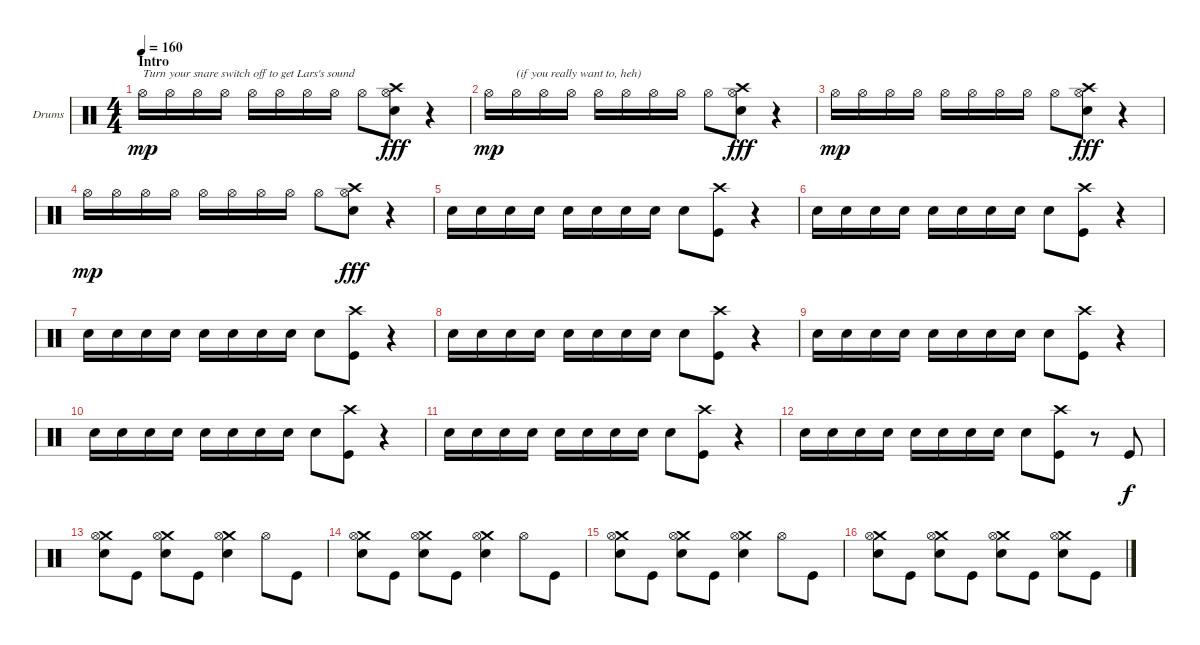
\bracketExtendMode groupsimilarinstruments
\firstSystemTrackNameOrientation horizontal
\otherSystemsTrackNameOrientation horizontal
\track ("Lars Ulrich (Drum)" "Drums") {instrument percussion}
\staff {score}
\articulation defaults
\ts (4 4)
\section ("" "Intro")
\tempo 160
\clef neutral
\ks c "Hi-Hat (open)".16{txt "Turn your snare switch off to get Lars's sound" dy mp} "Hi-Hat (open)".16 "Hi-Hat (open)".16 "Hi-Hat (open)".16 "Hi-Hat (open)".16 "Hi-Hat (open)".16 "Hi-Hat (open)".16 "Hi-Hat (open)".16 "Hi-Hat (open)".8
("Crash high (hit)" "Hi-Hat (open)" "Snare (hit) 2").8{dy fff} r.4 |
"Hi-Hat (open)".16{dy mp} "Hi-Hat (open)".16{txt "(if you really want to, heh)"} "Hi-Hat (open)".16 "Hi-Hat (open)".16 "Hi-Hat (open)".16 "Hi-Hat (open)".16 "Hi-Hat (open)".16 "Hi-Hat (open)".16 "Hi-Hat (open)".8 ("Crash high (hit)" "Hi-Hat (open)" "Snare (hit) 2").8{dy fff} r.4 |
"Hi-Hat (open)".16{dy mp} "Hi-Hat (open)".16 "Hi-Hat (open)".16 "Hi-Hat (open)".16 "Hi-Hat (open)".16 "Hi-Hat (open)".16 "Hi-Hat (open)".16 "Hi-Hat (open)".16 "Hi-Hat (open)".8 ("Crash high (hit)" "Hi-Hat (open)" "Snare (hit) 2").8{dy fff} r.4 |
"Hi-Hat (open)".16{dy mp} "Hi-Hat (open)".16 "Hi-Hat (open)".16 "Hi-Hat (open)".16 "Hi-Hat (open)".16 "Hi-Hat (open)".16 "Hi-Hat (open)".16 "Hi-Hat (open)".16 "Hi-Hat (open)".8 ("Crash high (hit)" "Hi-Hat (open)" "Snare (hit) 2").8{dy fff} r.4 |
"Snare (hit) 2".16 "Snare (hit) 2".16 "Snare (hit) 2".16 "Snare (hit) 2".16 "Snare (hit) 2".16 "Snare (hit) 2".16 "Snare (hit) 2".16 "Snare (hit) 2".16 "Snare (hit) 2".8 ("Crash high (hit)" "Kick (hit)").8 r.4 |
"Snare (hit) 2".16 "Snare (hit) 2".16 "Snare (hit) 2".16 "Snare (hit) 2".16 "Snare (hit) 2".16 "Snare (hit) 2".16 "Snare (hit) 2".16 "Snare (hit) 2".16 "Snare (hit) 2".8 ("Crash high (hit)" "Kick (hit)").8 r.4 |
"Snare (hit) 2".16 "Snare (hit) 2".16 "Snare (hit) 2".16 "Snare (hit) 2".16 "Snare (hit) 2".16 "Snare (hit) 2".16 "Snare (hit) 2".16 "Snare (hit) 2".16 "Snare (hit) 2".8 ("Crash high (hit)" "Kick (hit)").8 r.4 |
"Snare (hit) 2".16 "Snare (hit) 2".16 "Snare (hit) 2".16 "Snare (hit) 2".16 "Snare (hit) 2".16 "Snare (hit) 2".16 "Snare (hit) 2".16 "Snare (hit) 2".16 "Snare (hit) 2".8 ("Crash high (hit)" "Kick (hit)").8 r.4 |
"Snare (hit) 2".16 "Snare (hit) 2".16 "Snare (hit) 2".16 "Snare (hit) 2".16 "Snare (hit) 2".16 "Snare (hit) 2".16 "Snare (hit) 2".16 "Snare (hit) 2".16 "Snare (hit) 2".8 ("Crash high (hit)" "Kick (hit)").8 r.4 |
"Snare (hit) 2".16 "Snare (hit) 2".16 "Snare (hit) 2".16 "Snare (hit) 2".16 "Snare (hit) 2".16 "Snare (hit) 2".16 "Snare (hit) 2".16 "Snare (hit) 2".16 "Snare (hit) 2".8 ("Crash high (hit)" "Kick (hit)").8 r.4 |
"Snare (hit) 2".16 "Snare (hit) 2".16 "Snare (hit) 2".16 "Snare (hit) 2".16 "Snare (hit) 2".16 "Snare (hit) 2".16 "Snare (hit) 2".16 "Snare (hit) 2".16 "Snare (hit) 2".8 ("Crash high (hit)" "Kick (hit)").8 r.4 |
"Snare (hit) 2".16 "Snare (hit) 2".16 "Snare (hit) 2".16 "Snare (hit) 2".16 "Snare (hit) 2".16 "Snare (hit) 2".16 "Snare (hit) 2".16 "Snare (hit) 2".16 "Snare (hit) 2".8 ("Crash high (hit)" "Kick (hit)").8 r.8 "Kick (hit)".8{dy f} |
("Crash medium (hit)" "Hi-Hat (open)" "Snare (hit) 2").8 "Kick (hit)".8 ("Crash medium (hit)" "Hi-Hat (open)" "Snare (hit) 2").8 "Kick (hit)".8 ("Crash medium (hit)" "Hi-Hat (open)" "Snare (hit) 2").4 "Hi-Hat (open)".8 "Kick (hit)".8 |
("Crash medium (hit)" "Hi-Hat (open)" "Snare (hit) 2").8 "Kick (hit)".8 ("Crash medium (hit)" "Hi-Hat (open)" "Snare (hit) 2").8 "Kick (hit)".8 ("Crash medium (hit)" "Hi-Hat (open)" "Snare (hit) 2").4 "Hi-Hat (open)".8 "Kick (hit)".8 |
("Crash medium (hit)" "Hi-Hat (open)" "Snare (hit) 2").8 "Kick (hit)".8 ("Crash medium (hit)" "Hi-Hat (open)" "Snare (hit) 2").8 "Kick (hit)".8 ("Crash medium (hit)" "Hi-Hat (open)" "Snare (hit) 2").4 "Hi-Hat (open)".8 "Kick (hit)".8 |
("Crash medium (hit)" "Hi-Hat (open)" "Snare (hit) 2").8 "Kick (hit)".8 ("Crash medium (hit)" "Hi-Hat (open)" "Snare (hit) 2").8 "Kick (hit)".8 ("Crash medium (hit)" "Hi-Hat (open)" "Snare (hit) 2").8 "Kick (hit)".8 ("Crash medium (hit)" "Hi-Hat (open)" "Snare (hit) 2").8 "Kick (hit)".8
